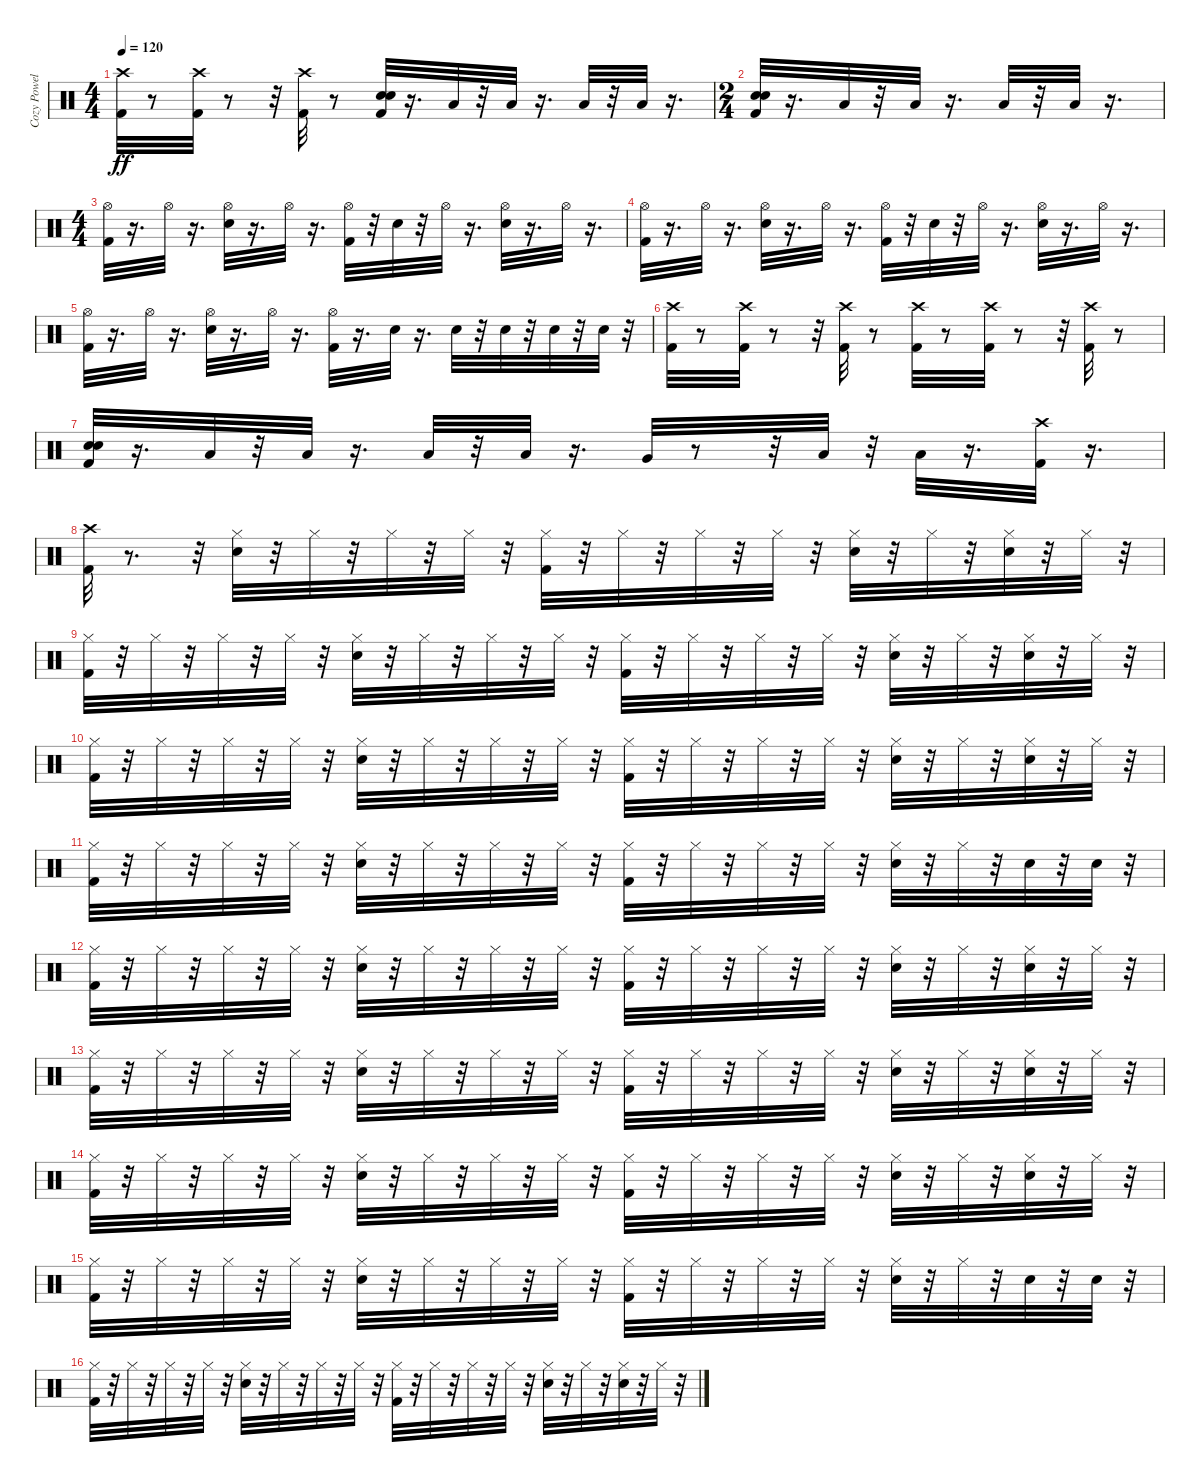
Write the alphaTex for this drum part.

\track ("Cozy Powel" "Cozy Powel") {instrument percussion}
\staff {score}
\articulation defaults
\ts (4 4)
\tempo 120
\clef neutral
\ks c
("Kick (hit) 2" "Crash high (hit)").32{dy ff} r.8 ("Kick (hit) 2" "Crash high (hit)").32 r.8 r.32 ("Kick (hit) 2" "Crash high (hit)").32 r.8 ("Kick (hit) 2" "Snare (hit) 2" "Snare (hit) 2").32 r.16{d} "Low Tom (hit)".32 r.32 "Low Tom (hit)".32 r.16{d} "Low Tom (hit)".32 r.32 "Low Tom (hit)".32 r.16{d} |
\ts (2 4)
("Kick (hit) 2" "Snare (hit) 2" "Snare (hit) 2").32 r.16{d} "Low Tom (hit)".32 r.32 "Low Tom (hit)".32 r.16{d} "Low Tom (hit)".32 r.32 "Low Tom (hit)".32 r.16{d} |
\ts (4 4)
("Kick (hit) 2" "Hi-Hat (open)").32 r.16{d} "Hi-Hat (open)".32 r.16{d} ("Snare (hit) 2" "Hi-Hat (open)").32 r.16{d} "Hi-Hat (open)".32 r.16{d} ("Kick (hit) 2" "Hi-Hat (open)").32 r.32 "Snare (hit) 2".32 r.32 "Hi-Hat (open)".32 r.16{d} ("Snare (hit) 2" "Hi-Hat (open)").32 r.16{d} "Hi-Hat (open)".32 r.16{d} |
("Kick (hit) 2" "Hi-Hat (open)").32 r.16{d} "Hi-Hat (open)".32 r.16{d} ("Snare (hit) 2" "Hi-Hat (open)").32 r.16{d} "Hi-Hat (open)".32 r.16{d} ("Kick (hit) 2" "Hi-Hat (open)").32 r.32 "Snare (hit) 2".32 r.32 "Hi-Hat (open)".32 r.16{d} ("Snare (hit) 2" "Hi-Hat (open)").32 r.16{d} "Hi-Hat (open)".32 r.16{d} |
("Kick (hit) 2" "Hi-Hat (open)").32 r.16{d} "Hi-Hat (open)".32 r.16{d} ("Snare (hit) 2" "Hi-Hat (open)").32 r.16{d} "Hi-Hat (open)".32 r.16{d} ("Kick (hit) 2" "Hi-Hat (open)").32 r.16{d} "Snare (hit) 2".32 r.16{d} "Snare (hit) 2".32 r.32 "Snare (hit) 2".32 r.32 "Snare (hit) 2".32 r.32 "Snare (hit) 2".32 r.32 |
("Kick (hit) 2" "Crash high (hit)").32 r.8 ("Kick (hit) 2" "Crash high (hit)").32 r.8 r.32 ("Kick (hit) 2" "Crash high (hit)").32 r.8 ("Kick (hit) 2" "Crash high (hit)").32 r.8 ("Kick (hit) 2" "Crash high (hit)").32 r.8 r.32 ("Kick (hit) 2" "Crash high (hit)").32 r.8 |
("Kick (hit) 2" "Snare (hit) 2" "Snare (hit) 2").32 r.16{d} "Low Tom (hit)".32 r.32 "Low Tom (hit)".32 r.16{d} "Low Tom (hit)".32 r.32 "Low Tom (hit)".32 r.16{d} "Very Low Tom (hit)".32 r.8 r.32 "Low Tom (hit)".32 r.32 "Low Tom (hit)".32 r.16{d} ("Kick (hit) 2" "Crash high (hit)").32 r.16{d} |
("Crash high (hit)" "Kick (hit) 2").32 r.8{d} r.32 ("Snare (hit) 2" "Hi-Hat (closed)").32 r.32 "Hi-Hat (closed)".32 r.32 "Hi-Hat (closed)".32 r.32 "Hi-Hat (closed)".32 r.32 ("Kick (hit) 2" "Hi-Hat (closed)").32 r.32 "Hi-Hat (closed)".32 r.32 "Hi-Hat (closed)".32 r.32 "Hi-Hat (closed)".32 r.32 ("Snare (hit) 2" "Hi-Hat (closed)").32 r.32 "Hi-Hat (closed)".32 r.32 ("Snare (hit) 2" "Hi-Hat (closed)").32 r.32 "Hi-Hat (closed)".32 r.32 |
("Hi-Hat (closed)" "Kick (hit) 2").32 r.32 "Hi-Hat (closed)".32 r.32 "Hi-Hat (closed)".32 r.32 "Hi-Hat (closed)".32 r.32 ("Hi-Hat (closed)" "Snare (hit) 2").32 r.32 "Hi-Hat (closed)".32 r.32 "Hi-Hat (closed)".32 r.32 "Hi-Hat (closed)".32 r.32 ("Hi-Hat (closed)" "Kick (hit) 2").32 r.32 "Hi-Hat (closed)".32 r.32 "Hi-Hat (closed)".32 r.32 "Hi-Hat (closed)".32 r.32 ("Hi-Hat (closed)" "Snare (hit) 2").32 r.32 "Hi-Hat (closed)".32 r.32 ("Hi-Hat (closed)" "Snare (hit) 2").32 r.32 "Hi-Hat (closed)".32 r.32 |
("Hi-Hat (closed)" "Kick (hit) 2").32 r.32 "Hi-Hat (closed)".32 r.32 "Hi-Hat (closed)".32 r.32 "Hi-Hat (closed)".32 r.32 ("Hi-Hat (closed)" "Snare (hit) 2").32 r.32 "Hi-Hat (closed)".32 r.32 "Hi-Hat (closed)".32 r.32 "Hi-Hat (closed)".32 r.32 ("Hi-Hat (closed)" "Kick (hit) 2").32 r.32 "Hi-Hat (closed)".32 r.32 "Hi-Hat (closed)".32 r.32 "Hi-Hat (closed)".32 r.32 ("Hi-Hat (closed)" "Snare (hit) 2").32 r.32 "Hi-Hat (closed)".32 r.32 ("Hi-Hat (closed)" "Snare (hit) 2").32 r.32 "Hi-Hat (closed)".32 r.32 |
("Hi-Hat (closed)" "Kick (hit) 2").32 r.32 "Hi-Hat (closed)".32 r.32 "Hi-Hat (closed)".32 r.32 "Hi-Hat (closed)".32 r.32 ("Hi-Hat (closed)" "Snare (hit) 2").32 r.32 "Hi-Hat (closed)".32 r.32 "Hi-Hat (closed)".32 r.32 "Hi-Hat (closed)".32 r.32 ("Hi-Hat (closed)" "Kick (hit) 2").32 r.32 "Hi-Hat (closed)".32 r.32 "Hi-Hat (closed)".32 r.32 "Hi-Hat (closed)".32 r.32 ("Hi-Hat (closed)" "Snare (hit) 2").32 r.32 "Hi-Hat (closed)".32 r.32 "Snare (hit) 2".32 r.32 "Snare (hit) 2".32 r.32 |
("Hi-Hat (closed)" "Kick (hit) 2").32 r.32 "Hi-Hat (closed)".32 r.32 "Hi-Hat (closed)".32 r.32 "Hi-Hat (closed)".32 r.32 ("Hi-Hat (closed)" "Snare (hit) 2").32 r.32 "Hi-Hat (closed)".32 r.32 "Hi-Hat (closed)".32 r.32 "Hi-Hat (closed)".32 r.32 ("Hi-Hat (closed)" "Kick (hit) 2").32 r.32 "Hi-Hat (closed)".32 r.32 "Hi-Hat (closed)".32 r.32 "Hi-Hat (closed)".32 r.32 ("Hi-Hat (closed)" "Snare (hit) 2").32 r.32 "Hi-Hat (closed)".32 r.32 ("Hi-Hat (closed)" "Snare (hit) 2").32 r.32 "Hi-Hat (closed)".32 r.32 |
("Hi-Hat (closed)" "Kick (hit) 2").32 r.32 "Hi-Hat (closed)".32 r.32 "Hi-Hat (closed)".32 r.32 "Hi-Hat (closed)".32 r.32 ("Hi-Hat (closed)" "Snare (hit) 2").32 r.32 "Hi-Hat (closed)".32 r.32 "Hi-Hat (closed)".32 r.32 "Hi-Hat (closed)".32 r.32 ("Hi-Hat (closed)" "Kick (hit) 2").32 r.32 "Hi-Hat (closed)".32 r.32 "Hi-Hat (closed)".32 r.32 "Hi-Hat (closed)".32 r.32 ("Hi-Hat (closed)" "Snare (hit) 2").32 r.32 "Hi-Hat (closed)".32 r.32 ("Hi-Hat (closed)" "Snare (hit) 2").32 r.32 "Hi-Hat (closed)".32 r.32 |
("Hi-Hat (closed)" "Kick (hit) 2").32 r.32 "Hi-Hat (closed)".32 r.32 "Hi-Hat (closed)".32 r.32 "Hi-Hat (closed)".32 r.32 ("Hi-Hat (closed)" "Snare (hit) 2").32 r.32 "Hi-Hat (closed)".32 r.32 "Hi-Hat (closed)".32 r.32 "Hi-Hat (closed)".32 r.32 ("Hi-Hat (closed)" "Kick (hit) 2").32 r.32 "Hi-Hat (closed)".32 r.32 "Hi-Hat (closed)".32 r.32 "Hi-Hat (closed)".32 r.32 ("Hi-Hat (closed)" "Snare (hit) 2").32 r.32 "Hi-Hat (closed)".32 r.32 ("Hi-Hat (closed)" "Snare (hit) 2").32 r.32 "Hi-Hat (closed)".32 r.32 |
("Hi-Hat (closed)" "Kick (hit) 2").32 r.32 "Hi-Hat (closed)".32 r.32 "Hi-Hat (closed)".32 r.32 "Hi-Hat (closed)".32 r.32 ("Hi-Hat (closed)" "Snare (hit) 2").32 r.32 "Hi-Hat (closed)".32 r.32 "Hi-Hat (closed)".32 r.32 "Hi-Hat (closed)".32 r.32 ("Hi-Hat (closed)" "Kick (hit) 2").32 r.32 "Hi-Hat (closed)".32 r.32 "Hi-Hat (closed)".32 r.32 "Hi-Hat (closed)".32 r.32 ("Hi-Hat (closed)" "Snare (hit) 2").32 r.32 "Hi-Hat (closed)".32 r.32 "Snare (hit) 2".32 r.32 "Snare (hit) 2".32 r.32 |
("Hi-Hat (closed)" "Kick (hit) 2").32 r.32 "Hi-Hat (closed)".32 r.32 "Hi-Hat (closed)".32 r.32 "Hi-Hat (closed)".32 r.32 ("Hi-Hat (closed)" "Snare (hit) 2").32 r.32 "Hi-Hat (closed)".32 r.32 "Hi-Hat (closed)".32 r.32 "Hi-Hat (closed)".32 r.32 ("Hi-Hat (closed)" "Kick (hit) 2").32 r.32 "Hi-Hat (closed)".32 r.32 "Hi-Hat (closed)".32 r.32 "Hi-Hat (closed)".32 r.32 ("Hi-Hat (closed)" "Snare (hit) 2").32 r.32 "Hi-Hat (closed)".32 r.32 ("Hi-Hat (closed)" "Snare (hit) 2").32 r.32 "Hi-Hat (closed)".32 r.32
